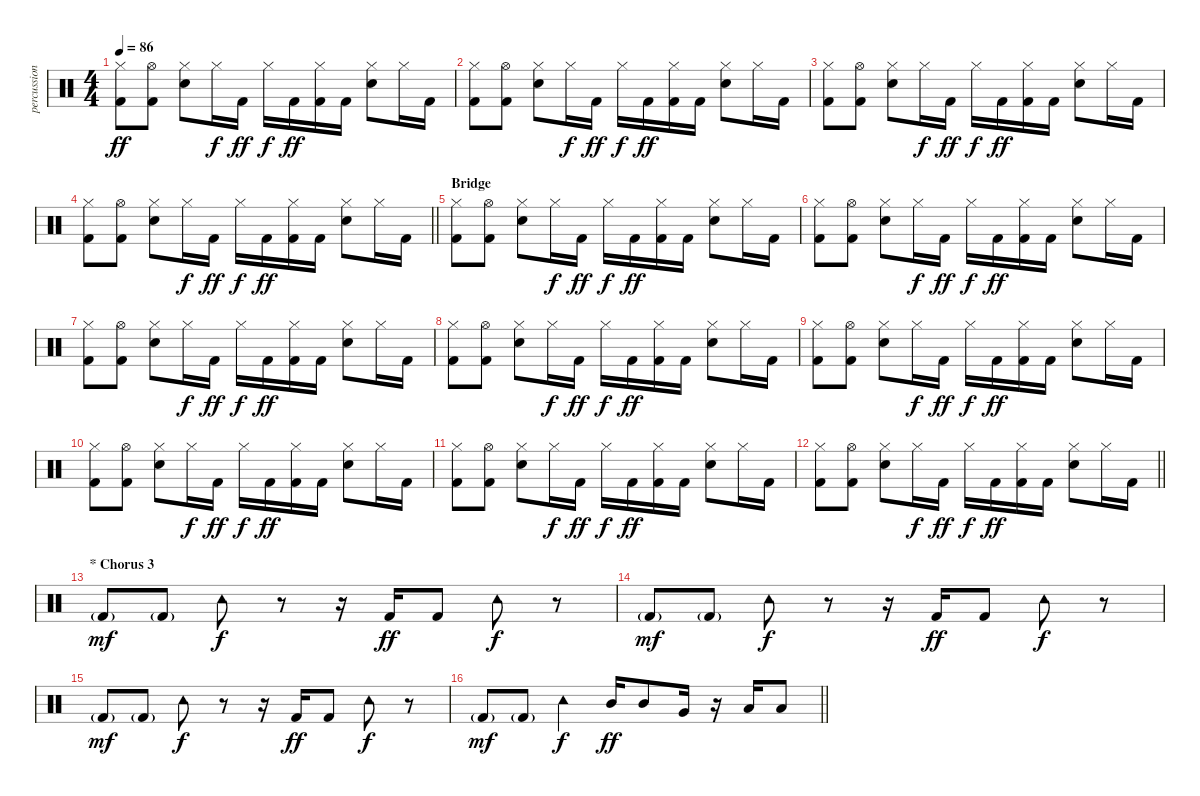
\track ("percussion" "percussion") {instrument percussion}
\staff {score}
\articulation defaults
\ts (4 4)
\tempo 86
\clef neutral
\ks c
("Hi-Hat (closed)" "Kick (hit) 2").8{dy ff} ("Hi-Hat (open)" "Kick (hit) 2").8 ("Electric Snare (hit)" "Hi-Hat (closed)").8 "Hi-Hat (closed)".16{dy f} "Kick (hit) 2".16{dy ff} "Hi-Hat (closed)".16{dy f} "Kick (hit) 2".16{dy ff} ("Hi-Hat (closed)" "Kick (hit) 2").16 "Kick (hit) 2".16 ("Electric Snare (hit)" "Hi-Hat (closed)").8 "Hi-Hat (closed)".16 "Kick (hit) 2".16 |
("Hi-Hat (closed)" "Kick (hit) 2").8 ("Hi-Hat (open)" "Kick (hit) 2").8 ("Electric Snare (hit)" "Hi-Hat (closed)").8 "Hi-Hat (closed)".16{dy f} "Kick (hit) 2".16{dy ff} "Hi-Hat (closed)".16{dy f} "Kick (hit) 2".16{dy ff} ("Hi-Hat (closed)" "Kick (hit) 2").16 "Kick (hit) 2".16 ("Electric Snare (hit)" "Hi-Hat (closed)").8 "Hi-Hat (closed)".16 "Kick (hit) 2".16 |
("Hi-Hat (closed)" "Kick (hit) 2").8 ("Hi-Hat (open)" "Kick (hit) 2").8 ("Electric Snare (hit)" "Hi-Hat (closed)").8 "Hi-Hat (closed)".16{dy f} "Kick (hit) 2".16{dy ff} "Hi-Hat (closed)".16{dy f} "Kick (hit) 2".16{dy ff} ("Hi-Hat (closed)" "Kick (hit) 2").16 "Kick (hit) 2".16 ("Electric Snare (hit)" "Hi-Hat (closed)").8 "Hi-Hat (closed)".16 "Kick (hit) 2".16 |
\barLineRight lightlight
("Hi-Hat (closed)" "Kick (hit) 2").8 ("Hi-Hat (open)" "Kick (hit) 2").8 ("Electric Snare (hit)" "Hi-Hat (closed)").8 "Hi-Hat (closed)".16{dy f} "Kick (hit) 2".16{dy ff} "Hi-Hat (closed)".16{dy f} "Kick (hit) 2".16{dy ff} ("Hi-Hat (closed)" "Kick (hit) 2").16 "Kick (hit) 2".16 ("Electric Snare (hit)" "Hi-Hat (closed)").8 "Hi-Hat (closed)".16 "Kick (hit) 2".16 |
\section ("" "Bridge")
("Hi-Hat (closed)" "Kick (hit) 2").8 ("Hi-Hat (open)" "Kick (hit) 2").8 ("Electric Snare (hit)" "Hi-Hat (closed)").8 "Hi-Hat (closed)".16{dy f} "Kick (hit) 2".16{dy ff} "Hi-Hat (closed)".16{dy f} "Kick (hit) 2".16{dy ff} ("Hi-Hat (closed)" "Kick (hit) 2").16 "Kick (hit) 2".16 ("Electric Snare (hit)" "Hi-Hat (closed)").8 "Hi-Hat (closed)".16 "Kick (hit) 2".16 |
("Hi-Hat (closed)" "Kick (hit) 2").8 ("Hi-Hat (open)" "Kick (hit) 2").8 ("Electric Snare (hit)" "Hi-Hat (closed)").8 "Hi-Hat (closed)".16{dy f} "Kick (hit) 2".16{dy ff} "Hi-Hat (closed)".16{dy f} "Kick (hit) 2".16{dy ff} ("Hi-Hat (closed)" "Kick (hit) 2").16 "Kick (hit) 2".16 ("Electric Snare (hit)" "Hi-Hat (closed)").8 "Hi-Hat (closed)".16 "Kick (hit) 2".16 |
("Hi-Hat (closed)" "Kick (hit) 2").8 ("Hi-Hat (open)" "Kick (hit) 2").8 ("Electric Snare (hit)" "Hi-Hat (closed)").8 "Hi-Hat (closed)".16{dy f} "Kick (hit) 2".16{dy ff} "Hi-Hat (closed)".16{dy f} "Kick (hit) 2".16{dy ff} ("Hi-Hat (closed)" "Kick (hit) 2").16 "Kick (hit) 2".16 ("Electric Snare (hit)" "Hi-Hat (closed)").8 "Hi-Hat (closed)".16 "Kick (hit) 2".16 |
("Hi-Hat (closed)" "Kick (hit) 2").8 ("Hi-Hat (open)" "Kick (hit) 2").8 ("Electric Snare (hit)" "Hi-Hat (closed)").8 "Hi-Hat (closed)".16{dy f} "Kick (hit) 2".16{dy ff} "Hi-Hat (closed)".16{dy f} "Kick (hit) 2".16{dy ff} ("Hi-Hat (closed)" "Kick (hit) 2").16 "Kick (hit) 2".16 ("Electric Snare (hit)" "Hi-Hat (closed)").8 "Hi-Hat (closed)".16 "Kick (hit) 2".16 |
("Hi-Hat (closed)" "Kick (hit) 2").8 ("Hi-Hat (open)" "Kick (hit) 2").8 ("Electric Snare (hit)" "Hi-Hat (closed)").8 "Hi-Hat (closed)".16{dy f} "Kick (hit) 2".16{dy ff} "Hi-Hat (closed)".16{dy f} "Kick (hit) 2".16{dy ff} ("Hi-Hat (closed)" "Kick (hit) 2").16 "Kick (hit) 2".16 ("Electric Snare (hit)" "Hi-Hat (closed)").8 "Hi-Hat (closed)".16 "Kick (hit) 2".16 |
("Hi-Hat (closed)" "Kick (hit) 2").8 ("Hi-Hat (open)" "Kick (hit) 2").8 ("Electric Snare (hit)" "Hi-Hat (closed)").8 "Hi-Hat (closed)".16{dy f} "Kick (hit) 2".16{dy ff} "Hi-Hat (closed)".16{dy f} "Kick (hit) 2".16{dy ff} ("Hi-Hat (closed)" "Kick (hit) 2").16 "Kick (hit) 2".16 ("Electric Snare (hit)" "Hi-Hat (closed)").8 "Hi-Hat (closed)".16 "Kick (hit) 2".16 |
("Hi-Hat (closed)" "Kick (hit) 2").8 ("Hi-Hat (open)" "Kick (hit) 2").8 ("Electric Snare (hit)" "Hi-Hat (closed)").8 "Hi-Hat (closed)".16{dy f} "Kick (hit) 2".16{dy ff} "Hi-Hat (closed)".16{dy f} "Kick (hit) 2".16{dy ff} ("Hi-Hat (closed)" "Kick (hit) 2").16 "Kick (hit) 2".16 ("Electric Snare (hit)" "Hi-Hat (closed)").8 "Hi-Hat (closed)".16 "Kick (hit) 2".16 |
\barLineRight lightlight
("Hi-Hat (closed)" "Kick (hit) 2").8 ("Hi-Hat (open)" "Kick (hit) 2").8 ("Electric Snare (hit)" "Hi-Hat (closed)").8 "Hi-Hat (closed)".16{dy f} "Kick (hit) 2".16{dy ff} "Hi-Hat (closed)".16{dy f} "Kick (hit) 2".16{dy ff} ("Hi-Hat (closed)" "Kick (hit) 2").16 "Kick (hit) 2".16 ("Electric Snare (hit)" "Hi-Hat (closed)").8 "Hi-Hat (closed)".16 "Kick (hit) 2".16 |
\section ("" "* Chorus 3")
"Kick (hit) 2"{g}.8{dy mf} "Kick (hit) 2"{g}.8 "Tambourine (hit)".8{dy f} r.8 r.16 "Kick (hit) 2".16{dy ff} "Kick (hit) 2".8 "Tambourine (hit)".8{dy f} r.8 |
"Kick (hit) 2"{g}.8{dy mf} "Kick (hit) 2"{g}.8 "Tambourine (hit)".8{dy f} r.8 r.16 "Kick (hit) 2".16{dy ff} "Kick (hit) 2".8 "Tambourine (hit)".8{dy f} r.8 |
"Kick (hit) 2"{g}.8{dy mf} "Kick (hit) 2"{g}.8 "Tambourine (hit)".8{dy f} r.8 r.16 "Kick (hit) 2".16{dy ff} "Kick (hit) 2".8 "Tambourine (hit)".8{dy f} r.8 |
\barLineRight lightlight "Kick (hit) 2"{g}.8{dy mf} "Kick (hit) 2"{g}.8 "Tambourine (hit)".4{dy f} "Mid Tom (hit)".16{dy ff} "Mid Tom (hit)".8 "Very Low Tom (hit)".16
r.16 "Low Floor Tom (hit)".16 "Low Floor Tom (hit)".8
